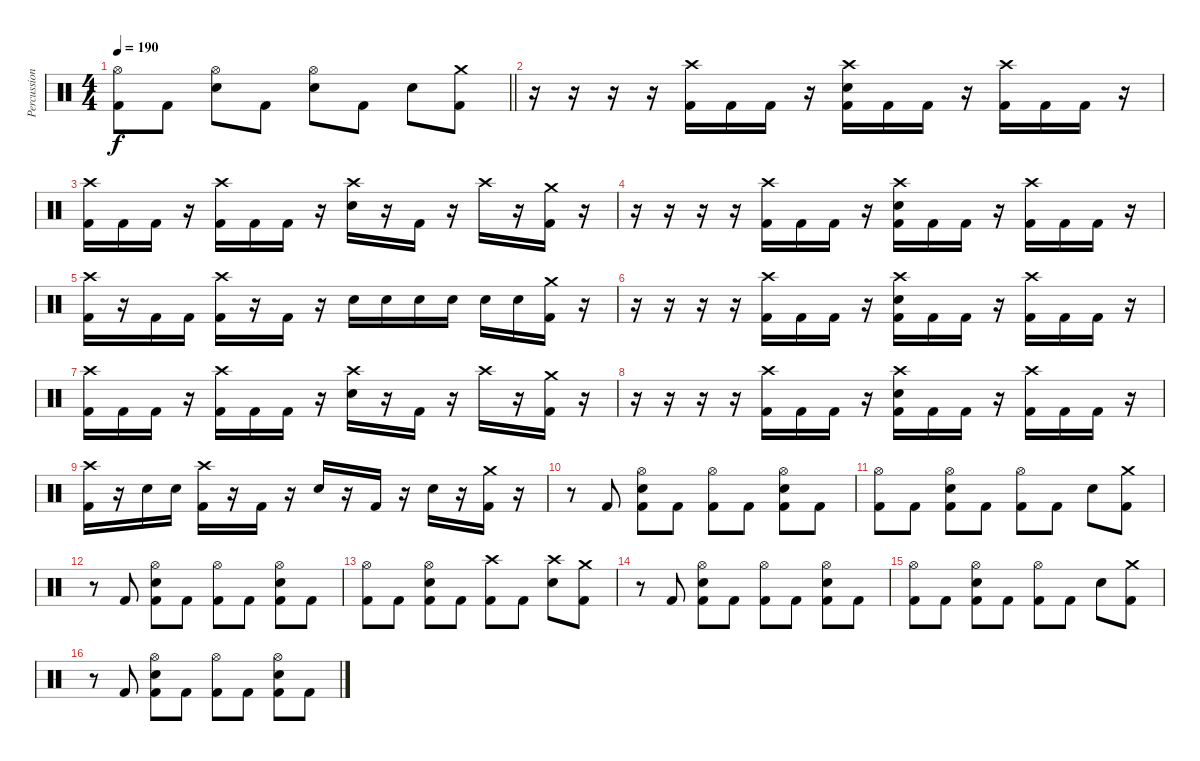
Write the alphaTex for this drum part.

\track ("Percussion" "Percussion") {instrument percussion}
\staff {score}
\articulation defaults
\ts (4 4)
\tempo 190
\clef neutral
\barLineRight lightlight
\ks c
("Hi-Hat (open)" "Kick (hit) 2").8{dy f} "Kick (hit) 2".8 ("Hi-Hat (open)" "Snare (hit) 2").8 "Kick (hit) 2".8 ("Hi-Hat (open)" "Snare (hit) 2").8 "Kick (hit) 2".8 "Snare (hit) 2".8 ("Crash medium (hit)" "Kick (hit) 2").8 |
\section ("" "")
r.16 r.16 r.16 r.16 ("Crash high (hit)" "Kick (hit) 2").16 "Kick (hit) 2".16 "Kick (hit) 2".16 r.16 ("Crash high (hit)" "Snare (hit) 2" "Kick (hit) 2").16 "Kick (hit) 2".16 "Kick (hit) 2".16 r.16 ("Crash high (hit)" "Kick (hit) 2").16 "Kick (hit) 2".16 "Kick (hit) 2".16 r.16 |
("Crash high (hit)" "Kick (hit) 2").16 "Kick (hit) 2".16 "Kick (hit) 2".16 r.16 ("Crash high (hit)" "Kick (hit) 2").16 "Kick (hit) 2".16 "Kick (hit) 2".16 r.16 ("Crash high (hit)" "Snare (hit) 2").16 r.16 "Kick (hit) 2".16 r.16 "Crash high (hit)".16 r.16 ("Crash medium (hit)" "Kick (hit) 2").16 r.16 |
r.16 r.16 r.16 r.16 ("Crash high (hit)" "Kick (hit) 2").16 "Kick (hit) 2".16 "Kick (hit) 2".16 r.16 ("Crash high (hit)" "Snare (hit) 2" "Kick (hit) 2").16 "Kick (hit) 2".16 "Kick (hit) 2".16 r.16 ("Crash high (hit)" "Kick (hit) 2").16 "Kick (hit) 2".16 "Kick (hit) 2".16 r.16 |
("Crash high (hit)" "Kick (hit) 2").16 r.16 "Kick (hit) 2".16 "Kick (hit) 2".16 ("Crash high (hit)" "Kick (hit) 2").16 r.16 "Kick (hit) 2".16 r.16 "Snare (hit) 2".16 "Snare (hit) 2".16 "Snare (hit) 2".16 "Snare (hit) 2".16 "Snare (hit) 2".16 "Snare (hit) 2".16 ("Crash medium (hit)" "Kick (hit) 2").16 r.16 |
r.16 r.16 r.16 r.16 ("Crash high (hit)" "Kick (hit) 2").16 "Kick (hit) 2".16 "Kick (hit) 2".16 r.16 ("Crash high (hit)" "Snare (hit) 2" "Kick (hit) 2").16 "Kick (hit) 2".16 "Kick (hit) 2".16 r.16 ("Crash high (hit)" "Kick (hit) 2").16 "Kick (hit) 2".16 "Kick (hit) 2".16 r.16 |
("Crash high (hit)" "Kick (hit) 2").16 "Kick (hit) 2".16 "Kick (hit) 2".16 r.16 ("Crash high (hit)" "Kick (hit) 2").16 "Kick (hit) 2".16 "Kick (hit) 2".16 r.16 ("Crash high (hit)" "Snare (hit) 2").16 r.16 "Kick (hit) 2".16 r.16 "Crash high (hit)".16 r.16 ("Crash medium (hit)" "Kick (hit) 2").16 r.16 |
r.16 r.16 r.16 r.16 ("Crash high (hit)" "Kick (hit) 2").16 "Kick (hit) 2".16 "Kick (hit) 2".16 r.16 ("Crash high (hit)" "Snare (hit) 2" "Kick (hit) 2").16 "Kick (hit) 2".16 "Kick (hit) 2".16 r.16 ("Crash high (hit)" "Kick (hit) 2").16 "Kick (hit) 2".16 "Kick (hit) 2".16 r.16 |
("Crash high (hit)" "Kick (hit) 2").16 r.16 "Snare (hit) 2".16 "Snare (hit) 2".16 ("Crash high (hit)" "Kick (hit) 2").16 r.16 "Kick (hit) 2".16 r.16 "Snare (hit) 2".16 r.16 "Kick (hit) 2".16 r.16 "Snare (hit) 2".16 r.16 ("Crash medium (hit)" "Kick (hit) 2").16 r.16 |
r.8 "Kick (hit) 2".8 ("Hi-Hat (open)" "Snare (hit) 2" "Kick (hit) 2").8 "Kick (hit) 2".8 ("Hi-Hat (open)" "Kick (hit) 2").8 "Kick (hit) 2".8 ("Hi-Hat (open)" "Snare (hit) 2" "Kick (hit) 2").8 "Kick (hit) 2".8 |
("Hi-Hat (open)" "Kick (hit) 2").8 "Kick (hit) 2".8 ("Hi-Hat (open)" "Snare (hit) 2" "Kick (hit) 2").8 "Kick (hit) 2".8 ("Hi-Hat (open)" "Kick (hit) 2").8 "Kick (hit) 2".8 "Snare (hit) 2".8 ("Crash medium (hit)" "Kick (hit) 2").8 |
r.8 "Kick (hit) 2".8 ("Hi-Hat (open)" "Snare (hit) 2" "Kick (hit) 2").8 "Kick (hit) 2".8 ("Hi-Hat (open)" "Kick (hit) 2").8 "Kick (hit) 2".8 ("Hi-Hat (open)" "Snare (hit) 2" "Kick (hit) 2").8 "Kick (hit) 2".8 |
("Hi-Hat (open)" "Kick (hit) 2").8 "Kick (hit) 2".8 ("Hi-Hat (open)" "Snare (hit) 2" "Kick (hit) 2").8 "Kick (hit) 2".8 ("Crash high (hit)" "Kick (hit) 2").8 "Kick (hit) 2".8 ("Crash high (hit)" "Snare (hit) 2").8 ("Crash medium (hit)" "Kick (hit) 2").8 |
r.8 "Kick (hit) 2".8 ("Hi-Hat (open)" "Snare (hit) 2" "Kick (hit) 2").8 "Kick (hit) 2".8 ("Hi-Hat (open)" "Kick (hit) 2").8 "Kick (hit) 2".8 ("Hi-Hat (open)" "Snare (hit) 2" "Kick (hit) 2").8 "Kick (hit) 2".8 |
("Hi-Hat (open)" "Kick (hit) 2").8 "Kick (hit) 2".8 ("Hi-Hat (open)" "Snare (hit) 2" "Kick (hit) 2").8 "Kick (hit) 2".8 ("Hi-Hat (open)" "Kick (hit) 2").8 "Kick (hit) 2".8 "Snare (hit) 2".8 ("Crash medium (hit)" "Kick (hit) 2").8 |
r.8 "Kick (hit) 2".8 ("Hi-Hat (open)" "Snare (hit) 2" "Kick (hit) 2").8 "Kick (hit) 2".8 ("Hi-Hat (open)" "Kick (hit) 2").8 "Kick (hit) 2".8 ("Hi-Hat (open)" "Snare (hit) 2" "Kick (hit) 2").8 "Kick (hit) 2".8
